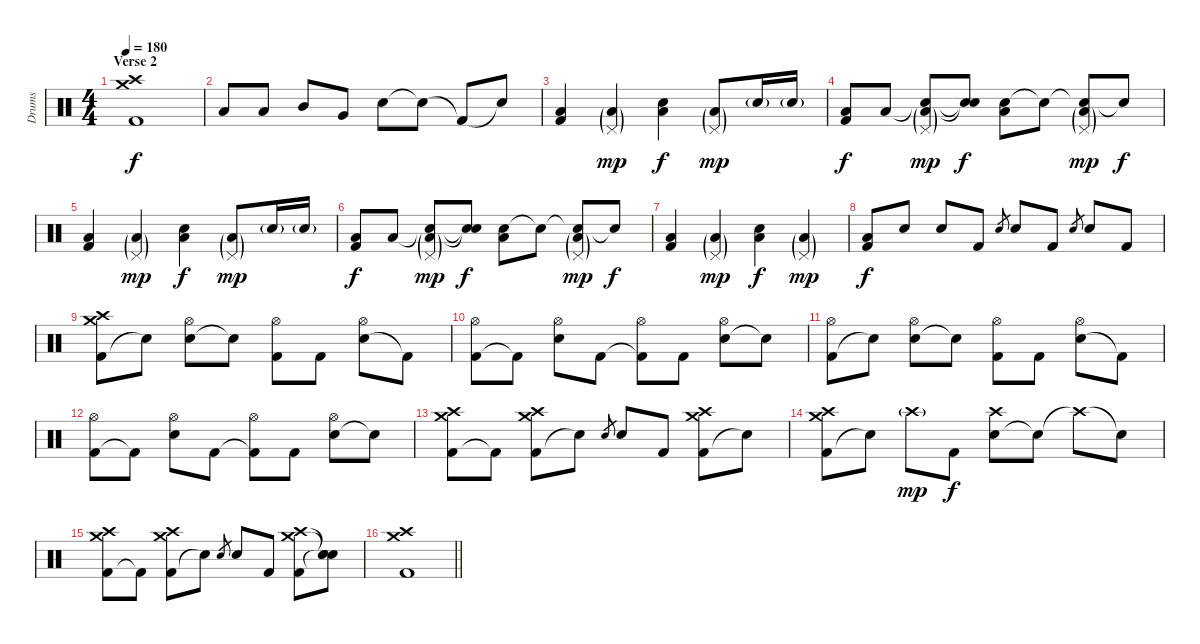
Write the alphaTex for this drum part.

\track ("Drums" "Drums") {instrument percussion}
\staff {score}
\articulation defaults
\ts (4 4)
\section ("" "Verse 2")
\tempo 180
\clef neutral
\ks c
("Kick (hit) 2" "Crash medium (hit)" "Crash high (hit)").1{dy f} |
"Low Floor Tom (hit)".8 "Low Tom (hit)".8 "Mid Tom (hit)".8 "Very Low Tom (hit)".8 "Electric Snare (hit)".8 "Snare (hit)"{t}.8 "Kick (hit) 2"{t}.8 "Snare (hit)"{t}.8 |
("Kick (hit) 2" "Low Floor Tom (hit)").4 ("Low Floor Tom (hit)"{g} "Pedal Hi-Hat (hit)"{g}).4{dy mp} ("Electric Snare (hit)" "Low Floor Tom (hit)").4{dy f} ("Low Floor Tom (hit)"{g} "Pedal Hi-Hat (hit)"{g}).8{dy mp} "Electric Snare (hit)"{g}.16 "Electric Snare (hit)"{g}.16 |
("Kick (hit) 2" "Low Floor Tom (hit)").8{dy f} "Low Tom (hit)".8 ("Snare (hit)"{t} "Low Floor Tom (hit)"{g} "Pedal Hi-Hat (hit)"{g}).8{dy mp} ("Electric Snare (hit)"{t} "Snare (hit)"{t}).8{dy f} ("Electric Snare (hit)" "Low Floor Tom (hit)").8 "Snare (hit)"{t}.8 ("Snare (hit)"{t} "Low Floor Tom (hit)"{g} "Pedal Hi-Hat (hit)"{g}).8{dy mp} "Snare (hit)"{t}.8{dy f} |
("Kick (hit) 2" "Low Floor Tom (hit)").4 ("Low Floor Tom (hit)"{g} "Pedal Hi-Hat (hit)"{g}).4{dy mp} ("Electric Snare (hit)" "Low Floor Tom (hit)").4{dy f} ("Low Floor Tom (hit)"{g} "Pedal Hi-Hat (hit)"{g}).8{dy mp} "Electric Snare (hit)"{g}.16 "Electric Snare (hit)"{g}.16 |
("Kick (hit) 2" "Low Floor Tom (hit)").8{dy f} "Low Tom (hit)".8 ("Snare (hit)"{t} "Low Floor Tom (hit)"{g} "Pedal Hi-Hat (hit)"{g}).8{dy mp} ("Electric Snare (hit)"{t} "Snare (hit)"{t}).8{dy f} ("Electric Snare (hit)" "Low Floor Tom (hit)").8 "Snare (hit)"{t}.8 ("Snare (hit)"{t} "Low Floor Tom (hit)"{g} "Pedal Hi-Hat (hit)"{g}).8{dy mp} "Snare (hit)"{t}.8{dy f} |
("Kick (hit) 2" "Low Floor Tom (hit)").4 ("Low Floor Tom (hit)"{g} "Pedal Hi-Hat (hit)"{g}).4{dy mp} ("Electric Snare (hit)" "Low Floor Tom (hit)").4{dy f} ("Low Floor Tom (hit)"{g} "Pedal Hi-Hat (hit)"{g}).4{dy mp} |
("Kick (hit) 2" "Low Floor Tom (hit)").8{dy f} "Electric Snare (hit)".8 "Electric Snare (hit)".8 "Kick (hit) 2".8 "Electric Snare (hit)".8{gr} "Electric Snare (hit)".8 "Kick (hit) 2".8 "Electric Snare (hit)".8{gr} "Electric Snare (hit)".8 "Kick (hit) 2".8 |
("Kick (hit) 2" "Crash high (hit)" "Crash medium (hit)").8 "Snare (hit)"{t}.8 ("Electric Snare (hit)" "Hi-Hat (open)").8 "Snare (hit)"{t}.8 ("Kick (hit) 2" "Hi-Hat (open)").8 "Kick (hit) 2".8 ("Electric Snare (hit)" "Hi-Hat (open)").8 "Kick (hit) 2"{t}.8 |
("Kick (hit) 2" "Hi-Hat (open)").8 "Kick (hit) 2"{t}.8 ("Electric Snare (hit)" "Hi-Hat (open)").8 "Kick (hit) 2".8 ("Kick (hit) 2"{t} "Hi-Hat (open)").8 "Kick (hit) 2".8 ("Electric Snare (hit)" "Hi-Hat (open)").8 "Snare (hit)"{t}.8 |
("Kick (hit) 2" "Hi-Hat (open)").8 "Snare (hit)"{t}.8 ("Electric Snare (hit)" "Hi-Hat (open)").8 "Snare (hit)"{t}.8 ("Kick (hit) 2" "Hi-Hat (open)").8 "Kick (hit) 2".8 ("Electric Snare (hit)" "Hi-Hat (open)").8 "Kick (hit) 2"{t}.8 |
("Kick (hit) 2" "Hi-Hat (open)").8 "Kick (hit) 2"{t}.8 ("Electric Snare (hit)" "Hi-Hat (open)").8 "Kick (hit) 2".8 ("Kick (hit) 2"{t} "Hi-Hat (open)").8 "Kick (hit) 2".8 ("Electric Snare (hit)" "Hi-Hat (open)").8 "Snare (hit)"{t}.8 |
("Kick (hit) 2" "Crash medium (hit)" "Crash high (hit)").8 "Kick (hit) 2"{t}.8 ("Kick (hit) 2" "Crash medium (hit)" "Crash high (hit)").8 "Electric Snare (hit)"{t}.8 "Electric Snare (hit)".8{gr} "Electric Snare (hit)".8 "Kick (hit) 2".8 ("Kick (hit) 2" "Crash medium (hit)" "Crash high (hit)").8 "Snare (hit)"{t}.8 |
("Kick (hit) 2" "Crash medium (hit)" "Crash high (hit)").8 "Snare (hit)"{t}.8 "Crash high (hit)"{g}.8{dy mp} "Kick (hit) 2".8{dy f} ("Electric Snare (hit)" "Crash high (hit)").8 "Snare (hit)"{t}.8 "Crash high (hit)"{t}.8 "Snare (hit)"{t}.8 |
("Kick (hit) 2" "Crash medium (hit)" "Crash high (hit)").8 "Kick (hit) 2"{t}.8 ("Kick (hit) 2" "Crash medium (hit)" "Crash high (hit)").8 "Electric Snare (hit)"{t}.8 "Electric Snare (hit)".8{gr} "Electric Snare (hit)".8 "Kick (hit) 2".8 ("Kick (hit) 2" "Crash medium (hit)" "Crash high (hit)").8 ("Snare (hit)"{t} "Snare (hit)"{t} "Snare (hit)"{t}).8 |
\barLineRight lightlight
("Kick (hit) 2" "Crash medium (hit)" "Crash high (hit)").1
